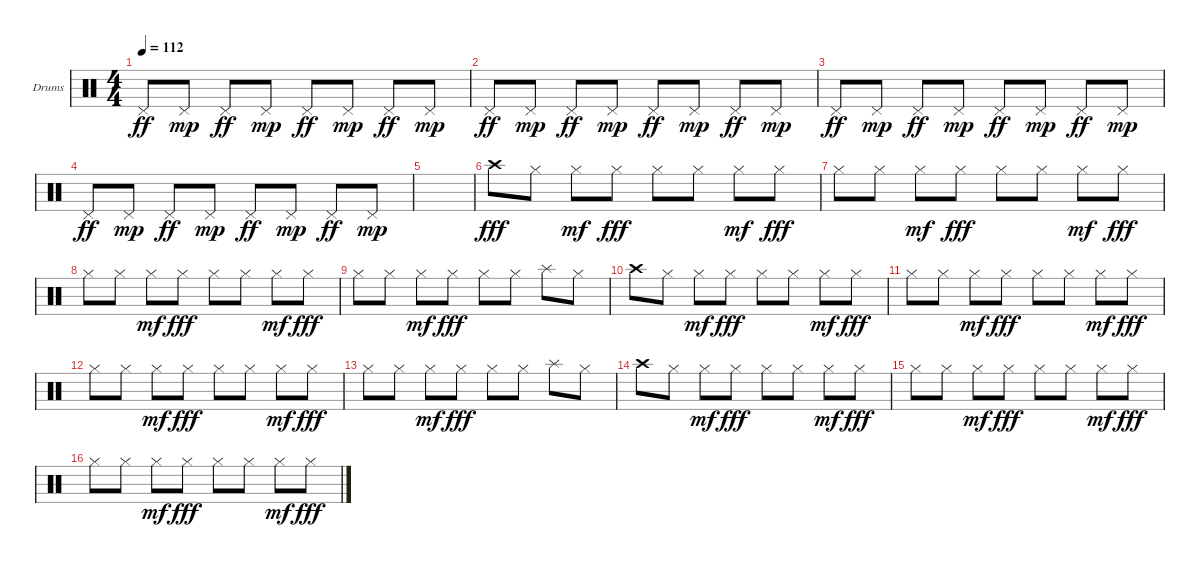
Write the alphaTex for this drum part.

\defaultSystemsLayout 4
\bracketExtendMode groupsimilarinstruments
\firstSystemTrackNameOrientation horizontal
\otherSystemsTrackNameOrientation horizontal
\track ("Пашок" "Drums") {instrument percussion}
\staff {score}
\articulation defaults
\ts (4 4)
\tempo 112
\clef neutral
\scale
0.472222
\ks c "Pedal Hi-Hat (hit)".8{dy ff} "Pedal Hi-Hat (hit)".8{dy mp} "Pedal Hi-Hat (hit)".8{dy ff} "Pedal Hi-Hat (hit)".8{dy mp} "Pedal Hi-Hat (hit)".8{dy ff} "Pedal Hi-Hat (hit)".8{dy mp} "Pedal Hi-Hat (hit)".8{dy ff} "Pedal Hi-Hat (hit)".8{dy mp}
|
\scale
0.263889 "Pedal Hi-Hat (hit)".8{dy ff} "Pedal Hi-Hat (hit)".8{dy mp} "Pedal Hi-Hat (hit)".8{dy ff} "Pedal Hi-Hat (hit)".8{dy mp} "Pedal Hi-Hat (hit)".8{dy ff} "Pedal Hi-Hat (hit)".8{dy mp} "Pedal Hi-Hat (hit)".8{dy ff} "Pedal Hi-Hat (hit)".8{dy mp} |
\scale
0.263889 "Pedal Hi-Hat (hit)".8{dy ff} "Pedal Hi-Hat (hit)".8{dy mp} "Pedal Hi-Hat (hit)".8{dy ff} "Pedal Hi-Hat (hit)".8{dy mp} "Pedal Hi-Hat (hit)".8{dy ff} "Pedal Hi-Hat (hit)".8{dy mp} "Pedal Hi-Hat (hit)".8{dy ff} "Pedal Hi-Hat (hit)".8{dy mp} |
\scale
0.333333 "Pedal Hi-Hat (hit)".8{dy ff} "Pedal Hi-Hat (hit)".8{dy mp} "Pedal Hi-Hat (hit)".8{dy ff} "Pedal Hi-Hat (hit)".8{dy mp} "Pedal Hi-Hat (hit)".8{dy ff} "Pedal Hi-Hat (hit)".8{dy mp} "Pedal Hi-Hat (hit)".8{dy ff} "Pedal Hi-Hat (hit)".8{dy mp} |
\scale
0.333333 |
\scale
0.333333 "Crash high (hit)".8{dy fff} "Hi-Hat (closed)".8 "Hi-Hat (closed)".8{dy mf} "Hi-Hat (closed)".8{dy fff} "Hi-Hat (closed)".8 "Hi-Hat (closed)".8 "Hi-Hat (closed)".8{dy mf} "Hi-Hat (closed)".8{dy fff} |
"Hi-Hat (closed)".8 "Hi-Hat (closed)".8 "Hi-Hat (closed)".8{dy mf} "Hi-Hat (closed)".8{dy fff} "Hi-Hat (closed)".8 "Hi-Hat (closed)".8 "Hi-Hat (closed)".8{dy mf} "Hi-Hat (closed)".8{dy fff} |
"Hi-Hat (closed)".8 "Hi-Hat (closed)".8 "Hi-Hat (closed)".8{dy mf} "Hi-Hat (closed)".8{dy fff} "Hi-Hat (closed)".8 "Hi-Hat (closed)".8 "Hi-Hat (closed)".8{dy mf} "Hi-Hat (closed)".8{dy fff} |
"Hi-Hat (closed)".8 "Hi-Hat (closed)".8 "Hi-Hat (closed)".8{dy mf} "Hi-Hat (closed)".8{dy fff} "Hi-Hat (closed)".8 "Hi-Hat (closed)".8 "Splash (hit)".8 "Hi-Hat (closed)".8 |
"Crash high (hit)".8 "Hi-Hat (closed)".8 "Hi-Hat (closed)".8{dy mf} "Hi-Hat (closed)".8{dy fff} "Hi-Hat (closed)".8 "Hi-Hat (closed)".8 "Hi-Hat (closed)".8{dy mf} "Hi-Hat (closed)".8{dy fff} |
"Hi-Hat (closed)".8 "Hi-Hat (closed)".8 "Hi-Hat (closed)".8{dy mf} "Hi-Hat (closed)".8{dy fff} "Hi-Hat (closed)".8 "Hi-Hat (closed)".8 "Hi-Hat (closed)".8{dy mf} "Hi-Hat (closed)".8{dy fff} |
"Hi-Hat (closed)".8 "Hi-Hat (closed)".8 "Hi-Hat (closed)".8{dy mf} "Hi-Hat (closed)".8{dy fff} "Hi-Hat (closed)".8 "Hi-Hat (closed)".8 "Hi-Hat (closed)".8{dy mf} "Hi-Hat (closed)".8{dy fff} |
"Hi-Hat (closed)".8 "Hi-Hat (closed)".8 "Hi-Hat (closed)".8{dy mf} "Hi-Hat (closed)".8{dy fff} "Hi-Hat (closed)".8 "Hi-Hat (closed)".8 "Splash (hit)".8 "Hi-Hat (closed)".8 |
"Crash high (hit)".8 "Hi-Hat (closed)".8 "Hi-Hat (closed)".8{dy mf} "Hi-Hat (closed)".8{dy fff} "Hi-Hat (closed)".8 "Hi-Hat (closed)".8 "Hi-Hat (closed)".8{dy mf} "Hi-Hat (closed)".8{dy fff} |
"Hi-Hat (closed)".8 "Hi-Hat (closed)".8 "Hi-Hat (closed)".8{dy mf} "Hi-Hat (closed)".8{dy fff} "Hi-Hat (closed)".8 "Hi-Hat (closed)".8 "Hi-Hat (closed)".8{dy mf} "Hi-Hat (closed)".8{dy fff} |
"Hi-Hat (closed)".8 "Hi-Hat (closed)".8 "Hi-Hat (closed)".8{dy mf} "Hi-Hat (closed)".8{dy fff} "Hi-Hat (closed)".8 "Hi-Hat (closed)".8 "Hi-Hat (closed)".8{dy mf} "Hi-Hat (closed)".8{dy fff}
